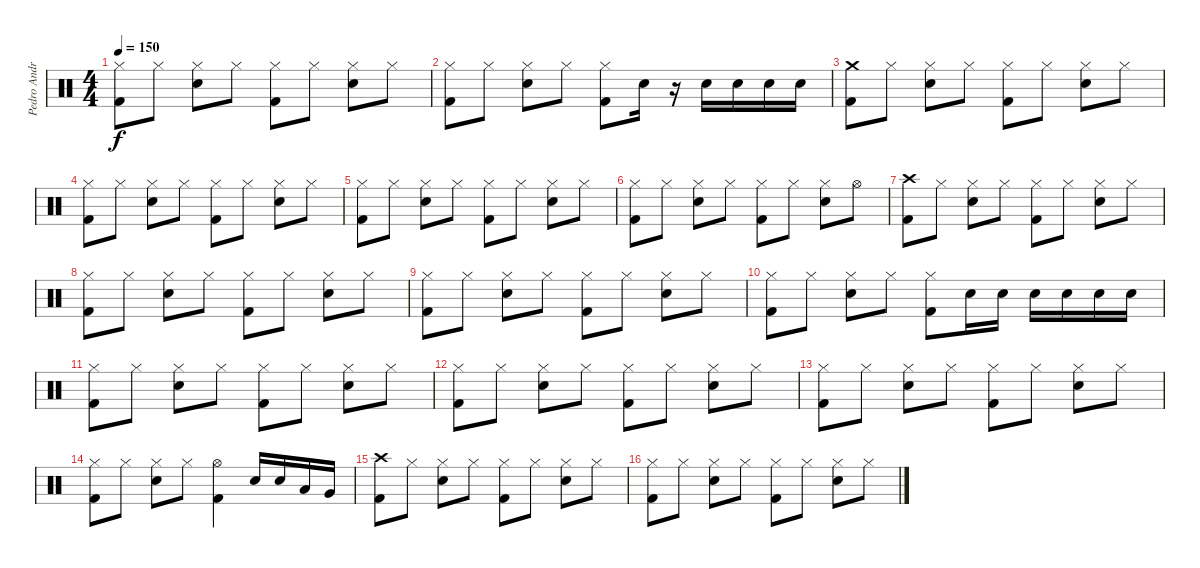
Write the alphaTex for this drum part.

\track ("Pedro Andreu" "Pedro Andr") {instrument percussion}
\staff {score}
\articulation defaults
\ts (4 4)
\tempo 150
\clef neutral
\ks c
("Hi-Hat (closed)" "Kick (hit) 2").8{dy f} "Hi-Hat (closed)".8 ("Hi-Hat (closed)" "Snare (hit) 2").8 "Hi-Hat (closed)".8 ("Hi-Hat (closed)" "Kick (hit) 2").8 "Hi-Hat (closed)".8 ("Hi-Hat (closed)" "Snare (hit) 2").8 "Hi-Hat (closed)".8 |
("Hi-Hat (closed)" "Kick (hit) 2").8 "Hi-Hat (closed)".8 ("Hi-Hat (closed)" "Snare (hit) 2").8 "Hi-Hat (closed)".8 ("Hi-Hat (closed)" "Kick (hit) 2").8 "Snare (hit) 2".16 r.16 "Snare (hit) 2".16 "Snare (hit) 2".16 "Snare (hit) 2".16 "Snare (hit) 2".16 |
("Crash medium (hit)" "Kick (hit) 2").8 "Hi-Hat (closed)".8 ("Hi-Hat (closed)" "Snare (hit) 2").8 "Hi-Hat (closed)".8 ("Hi-Hat (closed)" "Kick (hit) 2").8 "Hi-Hat (closed)".8 ("Hi-Hat (closed)" "Snare (hit) 2").8 "Hi-Hat (closed)".8 |
("Hi-Hat (closed)" "Kick (hit) 2").8 "Hi-Hat (closed)".8 ("Hi-Hat (closed)" "Snare (hit) 2").8 "Hi-Hat (closed)".8 ("Hi-Hat (closed)" "Kick (hit) 2").8 "Hi-Hat (closed)".8 ("Hi-Hat (closed)" "Snare (hit) 2").8 "Hi-Hat (closed)".8 |
("Hi-Hat (closed)" "Kick (hit) 2").8 "Hi-Hat (closed)".8 ("Hi-Hat (closed)" "Snare (hit) 2").8 "Hi-Hat (closed)".8 ("Hi-Hat (closed)" "Kick (hit) 2").8 "Hi-Hat (closed)".8 ("Hi-Hat (closed)" "Snare (hit) 2").8 "Hi-Hat (closed)".8 |
("Hi-Hat (closed)" "Kick (hit) 2").8 "Hi-Hat (closed)".8 ("Hi-Hat (closed)" "Snare (hit) 2").8 "Hi-Hat (closed)".8 ("Hi-Hat (closed)" "Kick (hit) 2").8 "Hi-Hat (closed)".8 ("Hi-Hat (closed)" "Snare (hit) 2").8 "Hi-Hat (open)".8 |
("Crash high (hit)" "Kick (hit) 2").8 "Hi-Hat (closed)".8 ("Hi-Hat (closed)" "Snare (hit) 2").8 "Hi-Hat (closed)".8 ("Hi-Hat (closed)" "Kick (hit) 2").8 "Hi-Hat (closed)".8 ("Hi-Hat (closed)" "Snare (hit) 2").8 "Hi-Hat (closed)".8 |
("Hi-Hat (closed)" "Kick (hit) 2").8 "Hi-Hat (closed)".8 ("Hi-Hat (closed)" "Snare (hit) 2").8 "Hi-Hat (closed)".8 ("Hi-Hat (closed)" "Kick (hit) 2").8 "Hi-Hat (closed)".8 ("Hi-Hat (closed)" "Snare (hit) 2").8 "Hi-Hat (closed)".8 |
("Hi-Hat (closed)" "Kick (hit) 2").8 "Hi-Hat (closed)".8 ("Hi-Hat (closed)" "Snare (hit) 2").8 "Hi-Hat (closed)".8 ("Hi-Hat (closed)" "Kick (hit) 2").8 "Hi-Hat (closed)".8 ("Hi-Hat (closed)" "Snare (hit) 2").8 "Hi-Hat (closed)".8 |
("Hi-Hat (closed)" "Kick (hit) 2").8 "Hi-Hat (closed)".8 ("Hi-Hat (closed)" "Snare (hit) 2").8 "Hi-Hat (closed)".8 ("Hi-Hat (closed)" "Kick (hit) 2").8 "Snare (hit) 2".16 "Snare (hit) 2".16 "Snare (hit) 2".16 "Snare (hit) 2".16 "Snare (hit) 2".16 "Snare (hit) 2".16 |
("Hi-Hat (closed)" "Kick (hit) 2").8 "Hi-Hat (closed)".8 ("Hi-Hat (closed)" "Snare (hit) 2").8 "Hi-Hat (closed)".8 ("Hi-Hat (closed)" "Kick (hit) 2").8 "Hi-Hat (closed)".8 ("Hi-Hat (closed)" "Snare (hit) 2").8 "Hi-Hat (closed)".8 |
("Hi-Hat (closed)" "Kick (hit) 2").8 "Hi-Hat (closed)".8 ("Hi-Hat (closed)" "Snare (hit) 2").8 "Hi-Hat (closed)".8 ("Hi-Hat (closed)" "Kick (hit) 2").8 "Hi-Hat (closed)".8 ("Hi-Hat (closed)" "Snare (hit) 2").8 "Hi-Hat (closed)".8 |
("Hi-Hat (closed)" "Kick (hit) 2").8 "Hi-Hat (closed)".8 ("Hi-Hat (closed)" "Snare (hit) 2").8 "Hi-Hat (closed)".8 ("Hi-Hat (closed)" "Kick (hit) 2").8 "Hi-Hat (closed)".8 ("Hi-Hat (closed)" "Snare (hit) 2").8 "Hi-Hat (closed)".8 |
("Hi-Hat (closed)" "Kick (hit) 2").8 "Hi-Hat (closed)".8 ("Hi-Hat (closed)" "Snare (hit) 2").8 "Hi-Hat (closed)".8 ("Hi-Hat (open)" "Kick (hit) 2").4 "Snare (hit) 2".16 "Snare (hit) 2".16 "Low Tom (hit)".16 "Very Low Tom (hit)".16 |
("Crash high (hit)" "Kick (hit) 2").8 "Hi-Hat (closed)".8 ("Hi-Hat (closed)" "Snare (hit) 2").8 "Hi-Hat (closed)".8 ("Hi-Hat (closed)" "Kick (hit) 2").8 "Hi-Hat (closed)".8 ("Hi-Hat (closed)" "Snare (hit) 2").8 "Hi-Hat (closed)".8 |
("Hi-Hat (closed)" "Kick (hit) 2").8 "Hi-Hat (closed)".8 ("Hi-Hat (closed)" "Snare (hit) 2").8 "Hi-Hat (closed)".8 ("Hi-Hat (closed)" "Kick (hit) 2").8 "Hi-Hat (closed)".8 ("Hi-Hat (closed)" "Snare (hit) 2").8 "Hi-Hat (closed)".8
